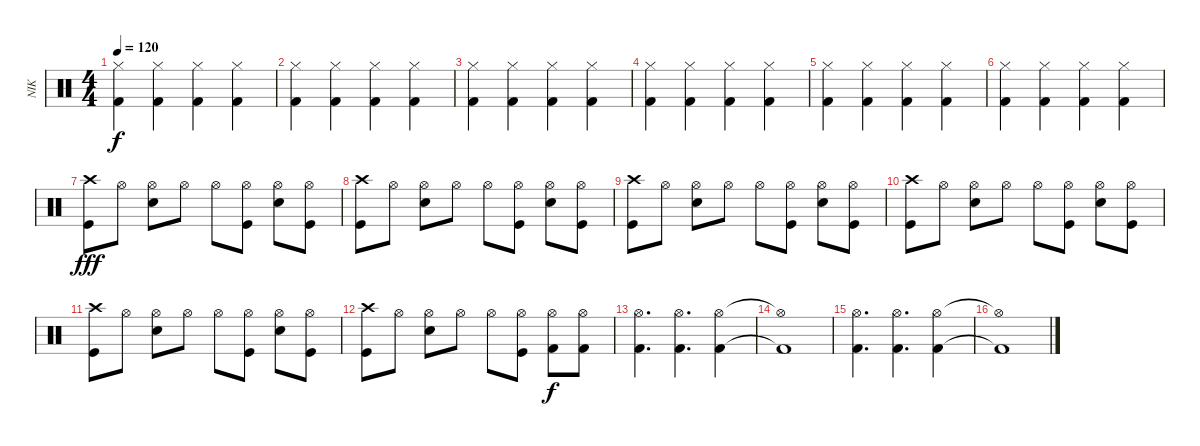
\track ("NIK" "NIK") {instrument percussion}
\staff {score}
\articulation defaults
\ts (4 4)
\tempo 120
\clef neutral
\ks c
("Hi-Hat (closed)" "Kick (hit) 2").4{dy f} ("Hi-Hat (closed)" "Kick (hit) 2").4 ("Hi-Hat (closed)" "Kick (hit) 2").4 ("Hi-Hat (closed)" "Kick (hit) 2").4 |
("Hi-Hat (closed)" "Kick (hit) 2").4 ("Hi-Hat (closed)" "Kick (hit) 2").4 ("Hi-Hat (closed)" "Kick (hit) 2").4 ("Hi-Hat (closed)" "Kick (hit) 2").4 |
("Hi-Hat (closed)" "Kick (hit) 2").4 ("Hi-Hat (closed)" "Kick (hit) 2").4 ("Hi-Hat (closed)" "Kick (hit) 2").4 ("Hi-Hat (closed)" "Kick (hit) 2").4 |
("Hi-Hat (closed)" "Kick (hit) 2").4 ("Hi-Hat (closed)" "Kick (hit) 2").4 ("Hi-Hat (closed)" "Kick (hit) 2").4 ("Hi-Hat (closed)" "Kick (hit) 2").4 |
("Hi-Hat (closed)" "Kick (hit) 2").4 ("Hi-Hat (closed)" "Kick (hit) 2").4 ("Hi-Hat (closed)" "Kick (hit) 2").4 ("Hi-Hat (closed)" "Kick (hit) 2").4 |
("Hi-Hat (closed)" "Kick (hit) 2").4 ("Hi-Hat (closed)" "Kick (hit) 2").4 ("Hi-Hat (closed)" "Kick (hit) 2").4 ("Hi-Hat (closed)" "Kick (hit) 2").4 |
("Crash high (hit)" "Kick (hit)").8{dy fff} "Hi-Hat (open)".8 ("Hi-Hat (open)" "Snare (hit) 2").8 "Hi-Hat (open)".8 "Hi-Hat (open)".8 ("Hi-Hat (open)" "Kick (hit)").8 ("Hi-Hat (open)" "Snare (hit) 2").8 ("Hi-Hat (open)" "Kick (hit)").8 |
("Crash high (hit)" "Kick (hit)").8 "Hi-Hat (open)".8 ("Hi-Hat (open)" "Snare (hit) 2").8 "Hi-Hat (open)".8 "Hi-Hat (open)".8 ("Hi-Hat (open)" "Kick (hit)").8 ("Hi-Hat (open)" "Snare (hit) 2").8 ("Hi-Hat (open)" "Kick (hit)").8 |
("Crash high (hit)" "Kick (hit)").8 "Hi-Hat (open)".8 ("Hi-Hat (open)" "Snare (hit) 2").8 "Hi-Hat (open)".8 "Hi-Hat (open)".8 ("Hi-Hat (open)" "Kick (hit)").8 ("Hi-Hat (open)" "Snare (hit) 2").8 ("Hi-Hat (open)" "Kick (hit)").8 |
("Crash high (hit)" "Kick (hit)").8 "Hi-Hat (open)".8 ("Hi-Hat (open)" "Snare (hit) 2").8 "Hi-Hat (open)".8 "Hi-Hat (open)".8 ("Hi-Hat (open)" "Kick (hit)").8 ("Hi-Hat (open)" "Snare (hit) 2").8 ("Hi-Hat (open)" "Kick (hit)").8 |
("Crash high (hit)" "Kick (hit)").8 "Hi-Hat (open)".8 ("Hi-Hat (open)" "Snare (hit) 2").8 "Hi-Hat (open)".8 "Hi-Hat (open)".8 ("Hi-Hat (open)" "Kick (hit)").8 ("Hi-Hat (open)" "Snare (hit) 2").8 ("Hi-Hat (open)" "Kick (hit)").8 |
("Crash high (hit)" "Kick (hit)").8 "Hi-Hat (open)".8 ("Hi-Hat (open)" "Snare (hit) 2").8 "Hi-Hat (open)".8 "Hi-Hat (open)".8 ("Hi-Hat (open)" "Kick (hit)").8 ("Hi-Hat (open)" "Kick (hit) 2").8{dy f} ("Hi-Hat (open)" "Kick (hit) 2").8 |
("Hi-Hat (open)" "Kick (hit) 2").4{d} ("Hi-Hat (open)" "Kick (hit) 2").4{d} ("Hi-Hat (open)" "Kick (hit) 2").4 |
("Hi-Hat (open)"{t} "Kick (hit) 2"{t}).1 |
("Hi-Hat (open)" "Kick (hit) 2").4{d} ("Hi-Hat (open)" "Kick (hit) 2").4{d} ("Hi-Hat (open)" "Kick (hit) 2").4 |
("Hi-Hat (open)"{t} "Kick (hit) 2"{t}).1
